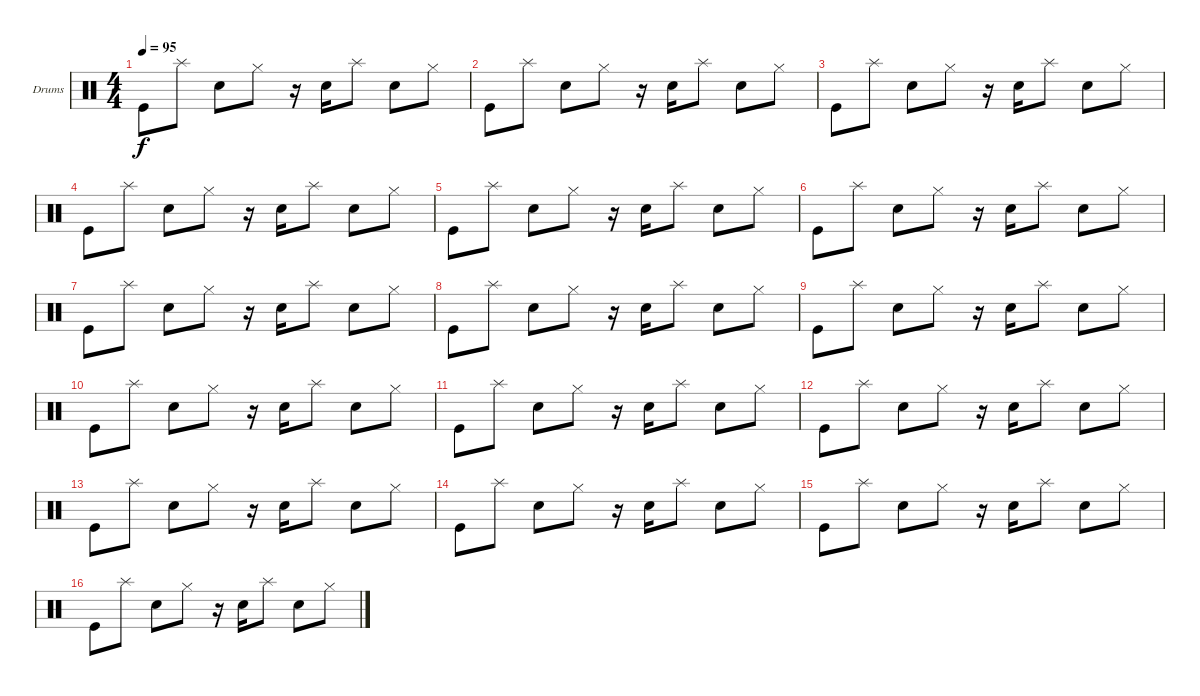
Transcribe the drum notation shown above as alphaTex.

\bracketExtendMode groupsimilarinstruments
\firstSystemTrackNameOrientation horizontal
\otherSystemsTrackNameOrientation horizontal
\track ("Drumkit" "Drums") {instrument percussion}
\staff {score}
\articulation defaults
\ts (4 4)
\tempo 95
\clef neutral
\ks c "Kick (hit)".8{dy f} "Splash (hit)".8 "Snare (hit) 2".8 "Hi-Hat (closed)".8
r.16 "Snare (hit) 2".16 "Splash (hit)".8 "Snare (hit) 2".8 "Hi-Hat (closed)".8 |
"Kick (hit)".8 "Splash (hit)".8 "Snare (hit) 2".8 "Hi-Hat (closed)".8 r.16 "Snare (hit) 2".16 "Splash (hit)".8 "Snare (hit) 2".8 "Hi-Hat (closed)".8 |
"Kick (hit)".8 "Splash (hit)".8 "Snare (hit) 2".8 "Hi-Hat (closed)".8 r.16 "Snare (hit) 2".16 "Splash (hit)".8 "Snare (hit) 2".8 "Hi-Hat (closed)".8 |
"Kick (hit)".8 "Splash (hit)".8 "Snare (hit) 2".8 "Hi-Hat (closed)".8 r.16 "Snare (hit) 2".16 "Splash (hit)".8 "Snare (hit) 2".8 "Hi-Hat (closed)".8 |
"Kick (hit)".8 "Splash (hit)".8 "Snare (hit) 2".8 "Hi-Hat (closed)".8 r.16 "Snare (hit) 2".16 "Splash (hit)".8 "Snare (hit) 2".8 "Hi-Hat (closed)".8 |
"Kick (hit)".8 "Splash (hit)".8 "Snare (hit) 2".8 "Hi-Hat (closed)".8 r.16 "Snare (hit) 2".16 "Splash (hit)".8 "Snare (hit) 2".8 "Hi-Hat (closed)".8 |
"Kick (hit)".8 "Splash (hit)".8 "Snare (hit) 2".8 "Hi-Hat (closed)".8 r.16 "Snare (hit) 2".16 "Splash (hit)".8 "Snare (hit) 2".8 "Hi-Hat (closed)".8 |
"Kick (hit)".8 "Splash (hit)".8 "Snare (hit) 2".8 "Hi-Hat (closed)".8 r.16 "Snare (hit) 2".16 "Splash (hit)".8 "Snare (hit) 2".8 "Hi-Hat (closed)".8 |
"Kick (hit)".8 "Splash (hit)".8 "Snare (hit) 2".8 "Hi-Hat (closed)".8 r.16 "Snare (hit) 2".16 "Splash (hit)".8 "Snare (hit) 2".8 "Hi-Hat (closed)".8 |
"Kick (hit)".8 "Splash (hit)".8 "Snare (hit) 2".8 "Hi-Hat (closed)".8 r.16 "Snare (hit) 2".16 "Splash (hit)".8 "Snare (hit) 2".8 "Hi-Hat (closed)".8 |
"Kick (hit)".8 "Splash (hit)".8 "Snare (hit) 2".8 "Hi-Hat (closed)".8 r.16 "Snare (hit) 2".16 "Splash (hit)".8 "Snare (hit) 2".8 "Hi-Hat (closed)".8 |
"Kick (hit)".8 "Splash (hit)".8 "Snare (hit) 2".8 "Hi-Hat (closed)".8 r.16 "Snare (hit) 2".16 "Splash (hit)".8 "Snare (hit) 2".8 "Hi-Hat (closed)".8 |
"Kick (hit)".8 "Splash (hit)".8 "Snare (hit) 2".8 "Hi-Hat (closed)".8 r.16 "Snare (hit) 2".16 "Splash (hit)".8 "Snare (hit) 2".8 "Hi-Hat (closed)".8 |
"Kick (hit)".8 "Splash (hit)".8 "Snare (hit) 2".8 "Hi-Hat (closed)".8 r.16 "Snare (hit) 2".16 "Splash (hit)".8 "Snare (hit) 2".8 "Hi-Hat (closed)".8 |
"Kick (hit)".8 "Splash (hit)".8 "Snare (hit) 2".8 "Hi-Hat (closed)".8 r.16 "Snare (hit) 2".16 "Splash (hit)".8 "Snare (hit) 2".8 "Hi-Hat (closed)".8 |
"Kick (hit)".8 "Splash (hit)".8 "Snare (hit) 2".8 "Hi-Hat (closed)".8 r.16 "Snare (hit) 2".16 "Splash (hit)".8 "Snare (hit) 2".8 "Hi-Hat (closed)".8
